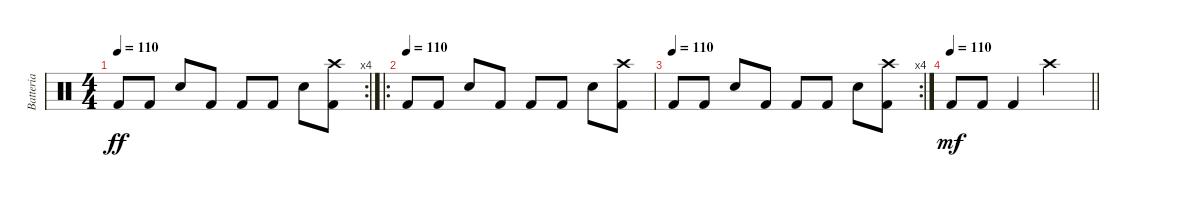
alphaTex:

\track ("Batteria" "Batteria") {instrument percussion}
\staff {score}
\articulation defaults
\rc 4
\ts (4 4)
\tempo 110
\clef neutral
\ks c "Kick (hit) 2".8{dy ff} "Kick (hit) 2".8 "Snare (hit) 2".8 "Kick (hit) 2".8 "Kick (hit) 2".8 "Kick (hit) 2".8 "Snare (hit) 2".8
("Crash high (hit)" "Kick (hit) 2").8 |
\ro
\tempo (110)
"Kick (hit) 2".8 "Kick (hit) 2".8 "Snare (hit) 2".8 "Kick (hit) 2".8 "Kick (hit) 2".8 "Kick (hit) 2".8 "Snare (hit) 2".8 ("Crash high (hit)" "Kick (hit) 2").8 |
\rc 4
\tempo (110)
"Kick (hit) 2".8 "Kick (hit) 2".8 "Snare (hit) 2".8 "Kick (hit) 2".8 "Kick (hit) 2".8 "Kick (hit) 2".8 "Snare (hit) 2".8 ("Crash high (hit)" "Kick (hit) 2").8 |
\tempo 110
\barLineRight lightlight "Kick (hit) 2".8{dy mf} "Kick (hit) 2".8 "Kick (hit) 2".4 "Crash high (hit)".2
